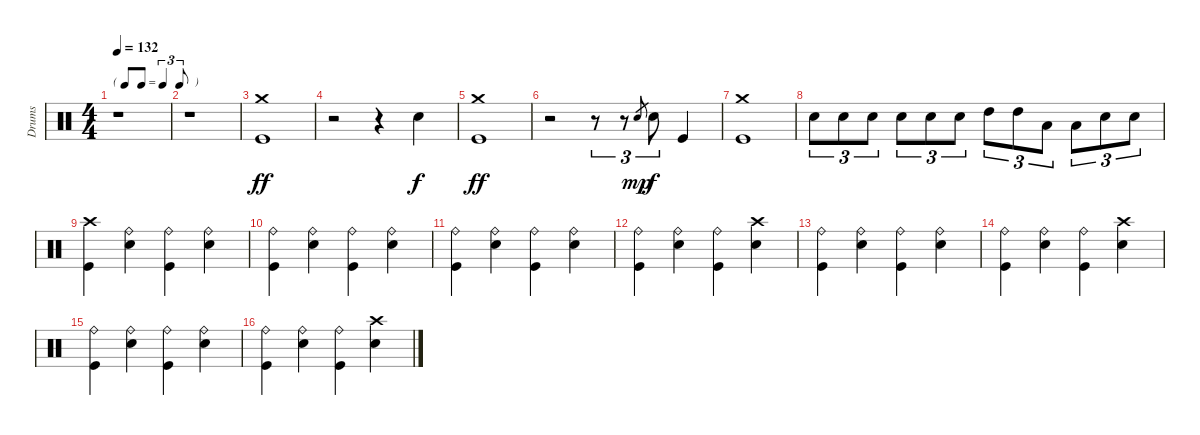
\track ("Drums" "Drums") {instrument percussion}
\staff {score}
\articulation defaults
\ts (4 4)
\tf triplet8th
\tempo 132
\clef neutral
\ks c
r.1{dy ff} |
r.1 |
("Crash medium (hit)" "Kick (hit)").1 |
r.2 r.4 "Electric Snare (hit)".4{dy f} |
("Crash medium (hit)" "Kick (hit)").1{dy ff} |
r.2 r.8{tu (3 2)} r.8{tu (3 2)} "Electric Snare (hit)".8{gr dy mp} "Electric Snare (hit)".8{tu (3 2) dy f} "Kick (hit)".4 |
("Crash medium (hit)" "Kick (hit)").1 |
"Electric Snare (hit)".8{tu (3 2)} "Electric Snare (hit)".8{tu (3 2)} "Electric Snare (hit)".8{tu (3 2)} "Electric Snare (hit)".8{tu (3 2)} "Electric Snare (hit)".8{tu (3 2)} "Electric Snare (hit)".8{tu (3 2)} "High Tom (hit)".8{tu (3 2)} "High Tom (hit)".8{tu (3 2)} "Low Tom (hit)".8{tu (3 2)} "Low Tom (hit)".8{tu (3 2)} "Electric Snare (hit)".8{tu (3 2)} "Electric Snare (hit)".8{tu (3 2)} |
("Crash high (hit)" "Kick (hit)").4 ("Ride (bell)" "Electric Snare (hit)").4 ("Ride (bell)" "Kick (hit)").4 ("Ride (bell)" "Electric Snare (hit)").4 |
("Ride (bell)" "Kick (hit)").4 ("Ride (bell)" "Electric Snare (hit)").4 ("Ride (bell)" "Kick (hit)").4 ("Ride (bell)" "Electric Snare (hit)").4 |
("Ride (bell)" "Kick (hit)").4 ("Ride (bell)" "Electric Snare (hit)").4 ("Ride (bell)" "Kick (hit)").4 ("Ride (bell)" "Electric Snare (hit)").4 |
("Ride (bell)" "Kick (hit)").4 ("Ride (bell)" "Electric Snare (hit)").4 ("Ride (bell)" "Kick (hit)").4 ("Crash high (hit)" "Electric Snare (hit)").4 |
("Ride (bell)" "Kick (hit)").4 ("Ride (bell)" "Electric Snare (hit)").4 ("Ride (bell)" "Kick (hit)").4 ("Ride (bell)" "Electric Snare (hit)").4 |
("Ride (bell)" "Kick (hit)").4 ("Ride (bell)" "Electric Snare (hit)").4 ("Ride (bell)" "Kick (hit)").4 ("Crash high (hit)" "Electric Snare (hit)").4 |
("Ride (bell)" "Kick (hit)").4 ("Ride (bell)" "Electric Snare (hit)").4 ("Ride (bell)" "Kick (hit)").4 ("Ride (bell)" "Electric Snare (hit)").4 |
("Ride (bell)" "Kick (hit)").4 ("Ride (bell)" "Electric Snare (hit)").4 ("Ride (bell)" "Kick (hit)").4 ("Crash high (hit)" "Electric Snare (hit)").4
